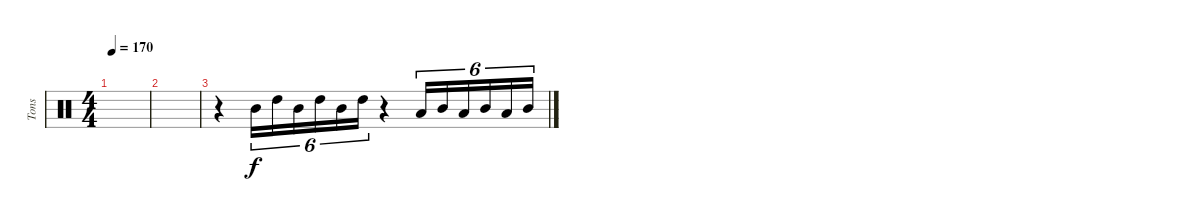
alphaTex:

\track ("Tons" "Tons") {instrument percussion}
\staff {score}
\articulation defaults
\ts (4 4)
\tempo 170
\clef neutral
\ks c
|
|
r.4 "Mid Tom (hit)".16{tu (6 4)} "High Tom (hit)".16{tu (6 4)} "Mid Tom (hit)".16{tu (6 4)} "High Tom (hit)".16{tu (6 4)} "Mid Tom (hit)".16{tu (6 4)} "High Tom (hit)".16{tu (6 4)} r.4 "Low Tom (hit)".16{tu (6 4)} "Mid Tom (hit)".16{tu (6 4)} "Low Tom (hit)".16{tu (6 4)} "Mid Tom (hit)".16{tu (6 4)} "Low Tom (hit)".16{tu (6 4)} "Mid Tom (hit)".16{tu (6 4)}
